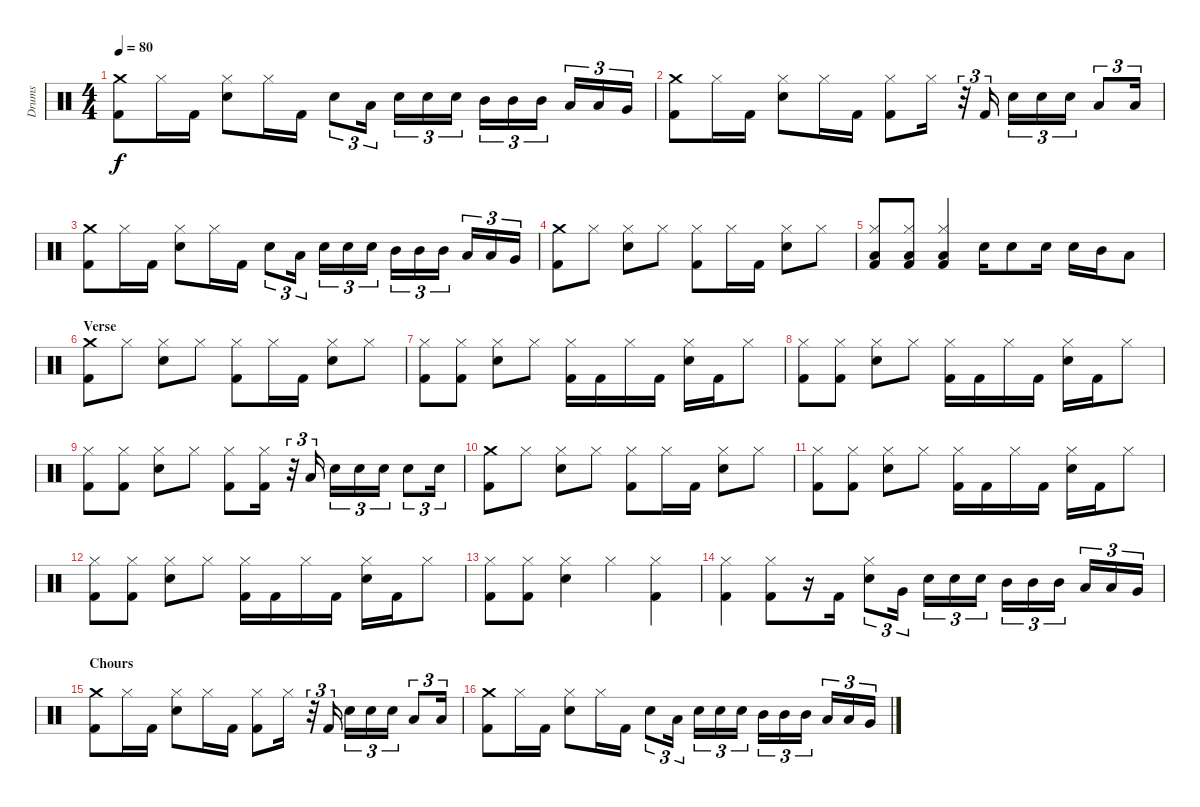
\track ("Drums" "Drums") {instrument percussion}
\staff {score}
\articulation defaults
\ts (4 4)
\tempo 80
\clef neutral
\ks c
("Crash medium (hit)" "Kick (hit) 2").8{dy f} "Hi-Hat (closed)".16 "Kick (hit) 2".16 ("Hi-Hat (closed)" "Electric Snare (hit)").8 "Hi-Hat (closed)".16 "Kick (hit) 2".16 "Electric Snare (hit)".8{tu (3 2)} "Low Tom (hit)".16{tu (3 2)} "Electric Snare (hit)".16{tu (3 2)} "Electric Snare (hit)".16{tu (3 2)} "Electric Snare (hit)".16{tu (3 2)} "Mid Tom (hit)".16{tu (3 2)} "Mid Tom (hit)".16{tu (3 2)} "Mid Tom (hit)".16{tu (3 2)} "Low Tom (hit)".16{tu (3 2)} "Low Tom (hit)".16{tu (3 2)} "Very Low Tom (hit)".16{tu (3 2)} |
("Crash medium (hit)" "Kick (hit) 2").8 "Hi-Hat (closed)".16 "Kick (hit) 2".16 ("Hi-Hat (closed)" "Electric Snare (hit)").8 "Hi-Hat (closed)".16 "Kick (hit) 2".16 ("Hi-Hat (closed)" "Kick (hit) 2").8 "Hi-Hat (closed)".16 r.32{tu (3 2)} "Kick (hit) 2".16{tu (3 2)} "Electric Snare (hit)".16{tu (3 2)} "Electric Snare (hit)".16{tu (3 2)} "Electric Snare (hit)".16{tu (3 2)} "Low Tom (hit)".8{tu (3 2)} "Low Tom (hit)".16{tu (3 2)} |
("Crash medium (hit)" "Kick (hit) 2").8 "Hi-Hat (closed)".16 "Kick (hit) 2".16 ("Hi-Hat (closed)" "Electric Snare (hit)").8 "Hi-Hat (closed)".16 "Kick (hit) 2".16 "Electric Snare (hit)".8{tu (3 2)} "Low Tom (hit)".16{tu (3 2)} "Electric Snare (hit)".16{tu (3 2)} "Electric Snare (hit)".16{tu (3 2)} "Electric Snare (hit)".16{tu (3 2)} "Mid Tom (hit)".16{tu (3 2)} "Mid Tom (hit)".16{tu (3 2)} "Mid Tom (hit)".16{tu (3 2)} "Low Tom (hit)".16{tu (3 2)} "Low Tom (hit)".16{tu (3 2)} "Very Low Tom (hit)".16{tu (3 2)} |
("Crash medium (hit)" "Kick (hit) 2").8 "Hi-Hat (closed)".8 ("Hi-Hat (closed)" "Electric Snare (hit)").8 "Hi-Hat (closed)".8 ("Hi-Hat (closed)" "Kick (hit) 2").8 "Hi-Hat (closed)".16 "Kick (hit) 2".16 ("Hi-Hat (closed)" "Electric Snare (hit)").8 "Hi-Hat (closed)".8 |
("Hi-Hat (closed)" "Low Tom (hit)" "Kick (hit) 2").8 ("Hi-Hat (closed)" "Low Tom (hit)" "Kick (hit) 2").8 ("Hi-Hat (closed)" "Low Tom (hit)" "Kick (hit) 2").4 "Electric Snare (hit)".16 "Electric Snare (hit)".8 "Electric Snare (hit)".16 "Electric Snare (hit)".16 "Mid Tom (hit)".16 "Low Tom (hit)".8 |
\section ("" "Verse")
("Crash medium (hit)" "Kick (hit) 2").8 "Hi-Hat (closed)".8 ("Hi-Hat (closed)" "Electric Snare (hit)").8 "Hi-Hat (closed)".8 ("Hi-Hat (closed)" "Kick (hit) 2").8 "Hi-Hat (closed)".16 "Kick (hit) 2".16 ("Hi-Hat (closed)" "Electric Snare (hit)").8 "Hi-Hat (closed)".8 |
("Hi-Hat (closed)" "Kick (hit) 2").8 ("Hi-Hat (closed)" "Kick (hit) 2").8 ("Hi-Hat (closed)" "Electric Snare (hit)").8 "Hi-Hat (closed)".8 ("Hi-Hat (closed)" "Kick (hit) 2").16 "Kick (hit) 2".16 "Hi-Hat (closed)".16 "Kick (hit) 2".16 ("Hi-Hat (closed)" "Electric Snare (hit)").16 "Kick (hit) 2".16 "Hi-Hat (closed)".8 |
("Hi-Hat (closed)" "Kick (hit) 2").8 ("Hi-Hat (closed)" "Kick (hit) 2").8 ("Hi-Hat (closed)" "Electric Snare (hit)").8 "Hi-Hat (closed)".8 ("Hi-Hat (closed)" "Kick (hit) 2").16 "Kick (hit) 2".16 "Hi-Hat (closed)".16 "Kick (hit) 2".16 ("Hi-Hat (closed)" "Electric Snare (hit)").16 "Kick (hit) 2".16 "Hi-Hat (closed)".8 |
("Hi-Hat (closed)" "Kick (hit) 2").8 ("Hi-Hat (closed)" "Kick (hit) 2").8 ("Hi-Hat (closed)" "Electric Snare (hit)").8 "Hi-Hat (closed)".8 ("Hi-Hat (closed)" "Kick (hit) 2").8 ("Hi-Hat (closed)" "Kick (hit) 2").16 r.32{tu (3 2)} "Low Tom (hit)".16{tu (3 2)} "Electric Snare (hit)".16{tu (3 2)} "Electric Snare (hit)".16{tu (3 2)} "Electric Snare (hit)".16{tu (3 2)} "Electric Snare (hit)".8{tu (3 2)} "Electric Snare (hit)".16{tu (3 2)} |
("Crash medium (hit)" "Kick (hit) 2").8 "Hi-Hat (closed)".8 ("Hi-Hat (closed)" "Electric Snare (hit)").8 "Hi-Hat (closed)".8 ("Hi-Hat (closed)" "Kick (hit) 2").8 "Hi-Hat (closed)".16 "Kick (hit) 2".16 ("Hi-Hat (closed)" "Electric Snare (hit)").8 "Hi-Hat (closed)".8 |
("Hi-Hat (closed)" "Kick (hit) 2").8 ("Hi-Hat (closed)" "Kick (hit) 2").8 ("Hi-Hat (closed)" "Electric Snare (hit)").8 "Hi-Hat (closed)".8 ("Hi-Hat (closed)" "Kick (hit) 2").16 "Kick (hit) 2".16 "Hi-Hat (closed)".16 "Kick (hit) 2".16 ("Hi-Hat (closed)" "Electric Snare (hit)").16 "Kick (hit) 2".16 "Hi-Hat (closed)".8 |
("Hi-Hat (closed)" "Kick (hit) 2").8 ("Hi-Hat (closed)" "Kick (hit) 2").8 ("Hi-Hat (closed)" "Electric Snare (hit)").8 "Hi-Hat (closed)".8 ("Hi-Hat (closed)" "Kick (hit) 2").16 "Kick (hit) 2".16 "Hi-Hat (closed)".16 "Kick (hit) 2".16 ("Hi-Hat (closed)" "Electric Snare (hit)").16 "Kick (hit) 2".16 "Hi-Hat (closed)".8 |
("Hi-Hat (closed)" "Kick (hit) 2").8 ("Hi-Hat (closed)" "Kick (hit) 2").8 ("Hi-Hat (closed)" "Electric Snare (hit)").4 "Hi-Hat (closed)".4 ("Hi-Hat (closed)" "Kick (hit) 2").4 |
("Hi-Hat (closed)" "Kick (hit) 2").4 ("Hi-Hat (closed)" "Kick (hit) 2").8 r.16 "Kick (hit) 2".16 ("Hi-Hat (closed)" "Electric Snare (hit)").8{tu (3 2)} "Very Low Tom (hit)".16{tu (3 2)} "Electric Snare (hit)".16{tu (3 2)} "Electric Snare (hit)".16{tu (3 2)} "Electric Snare (hit)".16{tu (3 2)} "Mid Tom (hit)".16{tu (3 2)} "Mid Tom (hit)".16{tu (3 2)} "Mid Tom (hit)".16{tu (3 2)} "Low Tom (hit)".16{tu (3 2)} "Low Tom (hit)".16{tu (3 2)} "Very Low Tom (hit)".16{tu (3 2)} |
\section ("" "Chours")
("Crash medium (hit)" "Kick (hit) 2").8 "Hi-Hat (closed)".16 "Kick (hit) 2".16 ("Hi-Hat (closed)" "Electric Snare (hit)").8 "Hi-Hat (closed)".16 "Kick (hit) 2".16 ("Hi-Hat (closed)" "Kick (hit) 2").8 "Hi-Hat (closed)".16 r.32{tu (3 2)} "Kick (hit) 2".16{tu (3 2)} "Electric Snare (hit)".16{tu (3 2)} "Electric Snare (hit)".16{tu (3 2)} "Electric Snare (hit)".16{tu (3 2)} "Low Tom (hit)".8{tu (3 2)} "Low Tom (hit)".16{tu (3 2)} |
("Crash medium (hit)" "Kick (hit) 2").8 "Hi-Hat (closed)".16 "Kick (hit) 2".16 ("Hi-Hat (closed)" "Electric Snare (hit)").8 "Hi-Hat (closed)".16 "Kick (hit) 2".16 "Electric Snare (hit)".8{tu (3 2)} "Low Tom (hit)".16{tu (3 2)} "Electric Snare (hit)".16{tu (3 2)} "Electric Snare (hit)".16{tu (3 2)} "Electric Snare (hit)".16{tu (3 2)} "Mid Tom (hit)".16{tu (3 2)} "Mid Tom (hit)".16{tu (3 2)} "Mid Tom (hit)".16{tu (3 2)} "Low Tom (hit)".16{tu (3 2)} "Low Tom (hit)".16{tu (3 2)} "Very Low Tom (hit)".16{tu (3 2)}
